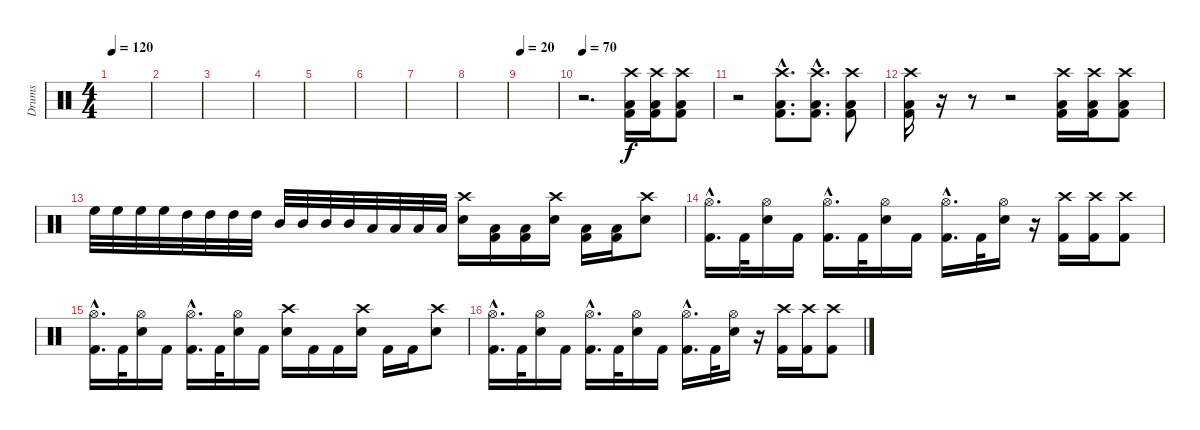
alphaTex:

\track ("Drums" "Drums") {instrument percussion}
\staff {score}
\articulation defaults
\ts (4 4)
\tempo 120
\clef neutral
\ks c
|
|
|
|
|
|
|
|
\tempo 20
|
\tempo 70
r.2{d} ("Crash high (hit)" "Low Floor Tom (hit)" "Kick (hit) 2").16 ("Crash high (hit)" "Low Floor Tom (hit)" "Kick (hit) 2").16 ("Crash high (hit)" "Low Floor Tom (hit)" "Kick (hit) 2").8 |
r.2 ("Crash high (hit)"{hac} "Low Floor Tom (hit)"{hac} "Kick (hit) 2"{hac}).8{d} ("Crash high (hit)"{hac} "Low Floor Tom (hit)"{hac} "Kick (hit) 2"{hac}).8{d} ("Crash high (hit)" "Low Floor Tom (hit)" "Kick (hit) 2").8 |
("Crash high (hit)" "Low Floor Tom (hit)" "Kick (hit) 2").16 r.16 r.8 r.2 ("Crash high (hit)" "Low Floor Tom (hit)" "Kick (hit) 2").16 ("Crash high (hit)" "Low Floor Tom (hit)" "Kick (hit) 2").16 ("Crash high (hit)" "Low Floor Tom (hit)" "Kick (hit) 2").8 |
"High Floor Tom (hit)".32 "High Floor Tom (hit)".32 "High Floor Tom (hit)".32 "High Floor Tom (hit)".32 "High Tom (hit)".32 "High Tom (hit)".32 "High Tom (hit)".32 "High Tom (hit)".32 "Mid Tom (hit)".32 "Mid Tom (hit)".32 "Mid Tom (hit)".32 "Mid Tom (hit)".32 "Low Tom (hit)".32 "Low Tom (hit)".32 "Low Tom (hit)".32 "Low Tom (hit)".32 ("Crash high (hit)" "Snare (hit) 2").16 ("Low Floor Tom (hit)" "Kick (hit) 2").16 ("Low Floor Tom (hit)" "Kick (hit) 2").16 ("Crash high (hit)" "Snare (hit) 2").16 ("Low Floor Tom (hit)" "Kick (hit) 2").16 ("Low Floor Tom (hit)" "Kick (hit) 2").16 ("Crash high (hit)" "Snare (hit) 2").8 |
("Hi-Hat (open)"{hac} "Kick (hit) 2"{hac}).16{d} "Kick (hit) 2".32 ("Hi-Hat (open)" "Snare (hit) 2").16 "Kick (hit) 2".16 ("Hi-Hat (open)"{hac} "Kick (hit) 2"{hac}).16{d} "Kick (hit) 2".32 ("Hi-Hat (open)" "Snare (hit) 2").16 "Kick (hit) 2".16 ("Hi-Hat (open)"{hac} "Kick (hit) 2"{hac}).16{d} "Kick (hit) 2".32 ("Hi-Hat (open)" "Snare (hit) 2").16 r.16 ("Crash high (hit)" "Kick (hit) 2").16 ("Crash high (hit)" "Kick (hit) 2").16 ("Crash high (hit)" "Kick (hit) 2").8 |
("Hi-Hat (open)"{hac} "Kick (hit) 2"{hac}).16{d} "Kick (hit) 2".32 ("Hi-Hat (open)" "Snare (hit) 2").16 "Kick (hit) 2".16 ("Hi-Hat (open)"{hac} "Kick (hit) 2"{hac}).16{d} "Kick (hit) 2".32 ("Hi-Hat (open)" "Snare (hit) 2").16 "Kick (hit) 2".16 ("Crash high (hit)" "Snare (hit) 2").16 "Kick (hit) 2".16 "Kick (hit) 2".16 ("Crash high (hit)" "Snare (hit) 2").16 "Kick (hit) 2".16 "Kick (hit) 2".16 ("Crash high (hit)" "Snare (hit) 2").8 |
("Hi-Hat (open)"{hac} "Kick (hit) 2"{hac}).16{d} "Kick (hit) 2".32 ("Hi-Hat (open)" "Snare (hit) 2").16 "Kick (hit) 2".16 ("Hi-Hat (open)"{hac} "Kick (hit) 2"{hac}).16{d} "Kick (hit) 2".32 ("Hi-Hat (open)" "Snare (hit) 2").16 "Kick (hit) 2".16 ("Hi-Hat (open)"{hac} "Kick (hit) 2"{hac}).16{d} "Kick (hit) 2".32 ("Hi-Hat (open)" "Snare (hit) 2").16 r.16 ("Crash high (hit)" "Kick (hit) 2").16 ("Crash high (hit)" "Kick (hit) 2").16 ("Crash high (hit)" "Kick (hit) 2").8
